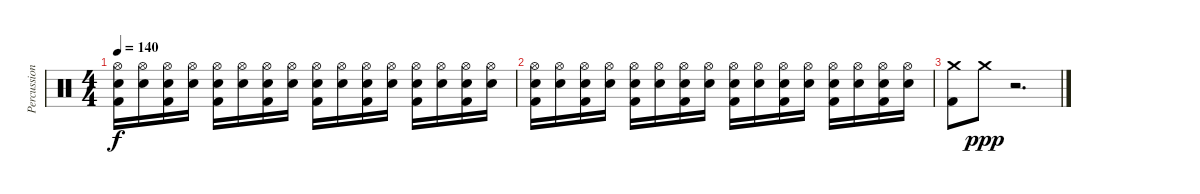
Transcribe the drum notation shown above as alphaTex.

\track ("Percussion" "Percussion") {instrument percussion}
\staff {score}
\articulation defaults
\ts (4 4)
\tempo 140
\clef neutral
\ks c
("Hi-Hat (open)" "Snare (hit) 2" "Kick (hit) 2").16{dy f} ("Hi-Hat (open)" "Snare (hit) 2").16 ("Hi-Hat (open)" "Snare (hit) 2" "Kick (hit) 2").16 ("Hi-Hat (open)" "Snare (hit) 2").16 ("Hi-Hat (open)" "Snare (hit) 2" "Kick (hit) 2").16 ("Hi-Hat (open)" "Snare (hit) 2").16 ("Hi-Hat (open)" "Snare (hit) 2" "Kick (hit) 2").16 ("Hi-Hat (open)" "Snare (hit) 2").16 ("Hi-Hat (open)" "Snare (hit) 2" "Kick (hit) 2").16 ("Hi-Hat (open)" "Snare (hit) 2").16 ("Hi-Hat (open)" "Snare (hit) 2" "Kick (hit) 2").16 ("Hi-Hat (open)" "Snare (hit) 2").16 ("Hi-Hat (open)" "Snare (hit) 2" "Kick (hit) 2").16 ("Hi-Hat (open)" "Snare (hit) 2").16 ("Hi-Hat (open)" "Snare (hit) 2" "Kick (hit) 2").16 ("Hi-Hat (open)" "Snare (hit) 2").16 |
("Hi-Hat (open)" "Snare (hit) 2" "Kick (hit) 2").16 ("Hi-Hat (open)" "Snare (hit) 2").16 ("Hi-Hat (open)" "Snare (hit) 2" "Kick (hit) 2").16 ("Hi-Hat (open)" "Snare (hit) 2").16 ("Hi-Hat (open)" "Snare (hit) 2" "Kick (hit) 2").16 ("Hi-Hat (open)" "Snare (hit) 2").16 ("Hi-Hat (open)" "Snare (hit) 2" "Kick (hit) 2").16 ("Hi-Hat (open)" "Snare (hit) 2").16 ("Hi-Hat (open)" "Snare (hit) 2" "Kick (hit) 2").16 ("Hi-Hat (open)" "Snare (hit) 2").16 ("Hi-Hat (open)" "Snare (hit) 2" "Kick (hit) 2").16 ("Hi-Hat (open)" "Snare (hit) 2").16 ("Hi-Hat (open)" "Snare (hit) 2" "Kick (hit) 2").16 ("Hi-Hat (open)" "Snare (hit) 2").16 ("Hi-Hat (open)" "Snare (hit) 2" "Kick (hit) 2").16 ("Hi-Hat (open)" "Snare (hit) 2").16 |
("Crash medium (hit)" "Kick (hit) 2").8 "Crash medium (hit)".8{dy ppp} r.2{d}
